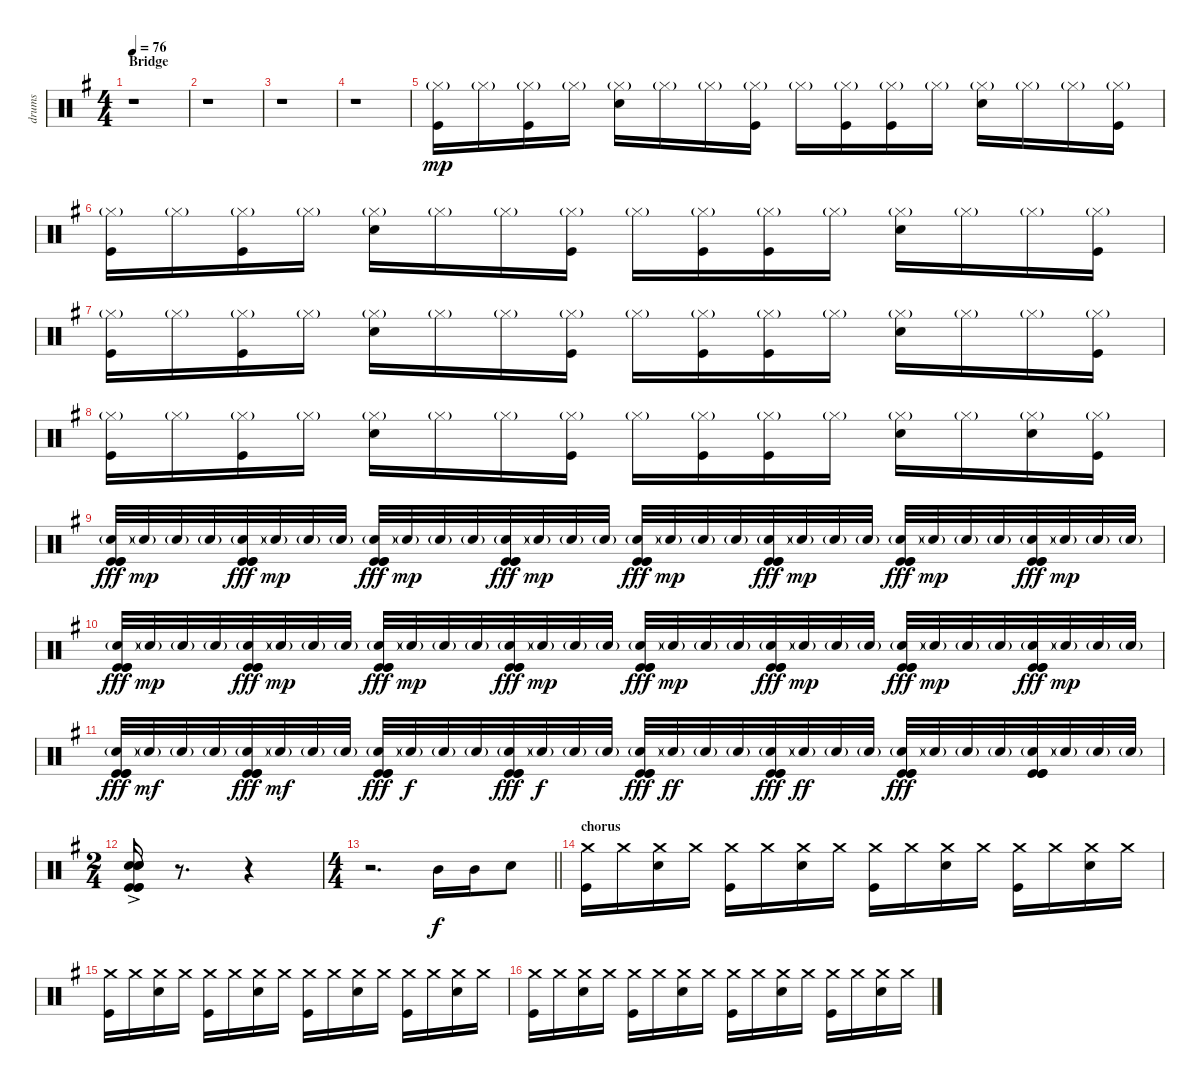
\track ("drums" "drums") {instrument percussion}
\staff {score}
\articulation defaults
\ts (4 4)
\section ("" "Bridge")
\tempo 76
\clef neutral
\ks eminor
r.1{dy f} |
r.1 |
r.1 |
r.1 |
("Hi-Hat (closed)"{g} "Kick (hit)").16{dy mp} "Hi-Hat (closed)"{g}.16 ("Hi-Hat (closed)"{g} "Kick (hit)").16 "Hi-Hat (closed)"{g}.16 ("Hi-Hat (closed)"{g} "Snare (hit) 2").16 "Hi-Hat (closed)"{g}.16 "Hi-Hat (closed)"{g}.16 ("Hi-Hat (closed)"{g} "Kick (hit)").16 "Hi-Hat (closed)"{g}.16 ("Hi-Hat (closed)"{g} "Kick (hit)").16 ("Hi-Hat (closed)"{g} "Kick (hit)").16 "Hi-Hat (closed)"{g}.16 ("Hi-Hat (closed)"{g} "Snare (hit) 2").16 "Hi-Hat (closed)"{g}.16 "Hi-Hat (closed)"{g}.16 ("Hi-Hat (closed)"{g} "Kick (hit)").16 |
("Hi-Hat (closed)"{g} "Kick (hit)").16 "Hi-Hat (closed)"{g}.16 ("Hi-Hat (closed)"{g} "Kick (hit)").16 "Hi-Hat (closed)"{g}.16 ("Hi-Hat (closed)"{g} "Snare (hit) 2").16 "Hi-Hat (closed)"{g}.16 "Hi-Hat (closed)"{g}.16 ("Hi-Hat (closed)"{g} "Kick (hit)").16 "Hi-Hat (closed)"{g}.16 ("Hi-Hat (closed)"{g} "Kick (hit)").16 ("Hi-Hat (closed)"{g} "Kick (hit)").16 "Hi-Hat (closed)"{g}.16 ("Hi-Hat (closed)"{g} "Snare (hit) 2").16 "Hi-Hat (closed)"{g}.16 "Hi-Hat (closed)"{g}.16 ("Hi-Hat (closed)"{g} "Kick (hit)").16 |
("Hi-Hat (closed)"{g} "Kick (hit)").16 "Hi-Hat (closed)"{g}.16 ("Hi-Hat (closed)"{g} "Kick (hit)").16 "Hi-Hat (closed)"{g}.16 ("Hi-Hat (closed)"{g} "Snare (hit) 2").16 "Hi-Hat (closed)"{g}.16 "Hi-Hat (closed)"{g}.16 ("Hi-Hat (closed)"{g} "Kick (hit)").16 "Hi-Hat (closed)"{g}.16 ("Hi-Hat (closed)"{g} "Kick (hit)").16 ("Hi-Hat (closed)"{g} "Kick (hit)").16 "Hi-Hat (closed)"{g}.16 ("Hi-Hat (closed)"{g} "Snare (hit) 2").16 "Hi-Hat (closed)"{g}.16 "Hi-Hat (closed)"{g}.16 ("Hi-Hat (closed)"{g} "Kick (hit)").16 |
("Hi-Hat (closed)"{g} "Kick (hit)").16 "Hi-Hat (closed)"{g}.16 ("Hi-Hat (closed)"{g} "Kick (hit)").16 "Hi-Hat (closed)"{g}.16 ("Hi-Hat (closed)"{g} "Snare (hit) 2").16 "Hi-Hat (closed)"{g}.16 "Hi-Hat (closed)"{g}.16 ("Hi-Hat (closed)"{g} "Kick (hit)").16 "Hi-Hat (closed)"{g}.16 ("Hi-Hat (closed)"{g} "Kick (hit)").16 ("Hi-Hat (closed)"{g} "Kick (hit)").16 "Hi-Hat (closed)"{g}.16 ("Hi-Hat (closed)"{g} "Snare (hit) 2").16 "Hi-Hat (closed)"{g}.16 ("Hi-Hat (closed)"{g} "Snare (hit) 2").16 ("Hi-Hat (closed)"{g} "Kick (hit)").16 |
("Snare (hit) 2"{g} "Kick (hit)" "Kick (hit)" "Kick (hit)").32{dy fff} "Snare (hit) 2"{g}.32{dy mp} "Snare (hit) 2"{g}.32 "Snare (hit) 2"{g}.32 ("Snare (hit) 2"{g} "Kick (hit)" "Kick (hit)" "Kick (hit)").32{dy fff} "Snare (hit) 2"{g}.32{dy mp} "Snare (hit) 2"{g}.32 "Snare (hit) 2"{g}.32 ("Snare (hit) 2"{g} "Kick (hit)" "Kick (hit)" "Kick (hit)").32{dy fff} "Snare (hit) 2"{g}.32{dy mp} "Snare (hit) 2"{g}.32 "Snare (hit) 2"{g}.32 ("Snare (hit) 2"{g} "Kick (hit)" "Kick (hit)" "Kick (hit)").32{dy fff} "Snare (hit) 2"{g}.32{dy mp} "Snare (hit) 2"{g}.32 "Snare (hit) 2"{g}.32 ("Snare (hit) 2"{g} "Kick (hit)" "Kick (hit)" "Kick (hit)").32{dy fff} "Snare (hit) 2"{g}.32{dy mp} "Snare (hit) 2"{g}.32 "Snare (hit) 2"{g}.32 ("Snare (hit) 2"{g} "Kick (hit)" "Kick (hit)" "Kick (hit)").32{dy fff} "Snare (hit) 2"{g}.32{dy mp} "Snare (hit) 2"{g}.32 "Snare (hit) 2"{g}.32 ("Snare (hit) 2"{g} "Kick (hit)" "Kick (hit)" "Kick (hit)").32{dy fff} "Snare (hit) 2"{g}.32{dy mp} "Snare (hit) 2"{g}.32 "Snare (hit) 2"{g}.32 ("Snare (hit) 2"{g} "Kick (hit)" "Kick (hit)" "Kick (hit)").32{dy fff} "Snare (hit) 2"{g}.32{dy mp} "Snare (hit) 2"{g}.32 "Snare (hit) 2"{g}.32 |
("Snare (hit) 2"{g} "Kick (hit)" "Kick (hit)" "Kick (hit)").32{dy fff} "Snare (hit) 2"{g}.32{dy mp} "Snare (hit) 2"{g}.32 "Snare (hit) 2"{g}.32 ("Snare (hit) 2"{g} "Kick (hit)" "Kick (hit)" "Kick (hit)").32{dy fff} "Snare (hit) 2"{g}.32{dy mp} "Snare (hit) 2"{g}.32 "Snare (hit) 2"{g}.32 ("Snare (hit) 2"{g} "Kick (hit)" "Kick (hit)" "Kick (hit)").32{dy fff} "Snare (hit) 2"{g}.32{dy mp} "Snare (hit) 2"{g}.32 "Snare (hit) 2"{g}.32 ("Snare (hit) 2"{g} "Kick (hit)" "Kick (hit)" "Kick (hit)").32{dy fff} "Snare (hit) 2"{g}.32{dy mp} "Snare (hit) 2"{g}.32 "Snare (hit) 2"{g}.32 ("Snare (hit) 2"{g} "Kick (hit)" "Kick (hit)" "Kick (hit)").32{dy fff} "Snare (hit) 2"{g}.32{dy mp} "Snare (hit) 2"{g}.32 "Snare (hit) 2"{g}.32 ("Snare (hit) 2"{g} "Kick (hit)" "Kick (hit)" "Kick (hit)").32{dy fff} "Snare (hit) 2"{g}.32{dy mp} "Snare (hit) 2"{g}.32 "Snare (hit) 2"{g}.32 ("Snare (hit) 2"{g} "Kick (hit)" "Kick (hit)" "Kick (hit)").32{dy fff} "Snare (hit) 2"{g}.32{dy mp} "Snare (hit) 2"{g}.32 "Snare (hit) 2"{g}.32 ("Snare (hit) 2"{g} "Kick (hit)" "Kick (hit)" "Kick (hit)").32{dy fff} "Snare (hit) 2"{g}.32{dy mp} "Snare (hit) 2"{g}.32 "Snare (hit) 2"{g}.32 |
("Snare (hit) 2"{g} "Kick (hit)" "Kick (hit)" "Kick (hit)").32{dy fff} "Snare (hit) 2"{g}.32{dy mf} "Snare (hit) 2"{g}.32 "Snare (hit) 2"{g}.32 ("Snare (hit) 2"{g} "Kick (hit)" "Kick (hit)" "Kick (hit)").32{dy fff} "Snare (hit) 2"{g}.32{dy mf} "Snare (hit) 2"{g}.32 "Snare (hit) 2"{g}.32 ("Snare (hit) 2"{g} "Kick (hit)" "Kick (hit)" "Kick (hit)").32{dy fff} "Snare (hit) 2"{g}.32{dy f} "Snare (hit) 2"{g}.32 "Snare (hit) 2"{g}.32 ("Snare (hit) 2"{g} "Kick (hit)" "Kick (hit)" "Kick (hit)").32{dy fff} "Snare (hit) 2"{g}.32{dy f} "Snare (hit) 2"{g}.32 "Snare (hit) 2"{g}.32 ("Snare (hit) 2"{g} "Kick (hit)" "Kick (hit)" "Kick (hit)").32{dy fff} "Snare (hit) 2"{g}.32{dy ff} "Snare (hit) 2"{g}.32 "Snare (hit) 2"{g}.32 ("Snare (hit) 2"{g} "Kick (hit)" "Kick (hit)" "Kick (hit)").32{dy fff} "Snare (hit) 2"{g}.32{dy ff} "Snare (hit) 2"{g}.32 "Snare (hit) 2"{g}.32 ("Snare (hit) 2"{g} "Kick (hit)" "Kick (hit)" "Kick (hit)").32{dy fff} "Snare (hit) 2"{g}.32 "Snare (hit) 2"{g}.32 "Snare (hit) 2"{g}.32 ("Snare (hit) 2"{g} "Kick (hit)" "Kick (hit)" "Kick (hit)").32 "Snare (hit) 2"{g}.32 "Snare (hit) 2"{g}.32 "Snare (hit) 2"{g}.32 |
\ts (2 4)
("Snare (hit) 2"{ac} "Snare (hit) 2" "Snare (hit) 2" "Kick (hit)" "Kick (hit)" "Kick (hit)").16 r.8{d} r.4 |
\ts (4 4)
\barLineRight lightlight
r.2{d} "Mid Tom (hit)".16{dy f} "Mid Tom (hit)".16 "Snare (hit) 2".8 |
\section ("" "chorus")
("Crash medium (hit)" "Kick (hit)").16 "Crash medium (hit)".16 ("Crash medium (hit)" "Snare (hit) 2").16 "Crash medium (hit)".16 ("Crash medium (hit)" "Kick (hit)").16 "Crash medium (hit)".16 ("Crash medium (hit)" "Snare (hit) 2").16 "Crash medium (hit)".16 ("Crash medium (hit)" "Kick (hit)").16 "Crash medium (hit)".16 ("Crash medium (hit)" "Snare (hit) 2").16 "Crash medium (hit)".16 ("Crash medium (hit)" "Kick (hit)").16 "Crash medium (hit)".16 ("Crash medium (hit)" "Snare (hit) 2").16 "Crash medium (hit)".16 |
("Crash medium (hit)" "Kick (hit)").16 "Crash medium (hit)".16 ("Crash medium (hit)" "Snare (hit) 2").16 "Crash medium (hit)".16 ("Crash medium (hit)" "Kick (hit)").16 "Crash medium (hit)".16 ("Crash medium (hit)" "Snare (hit) 2").16 "Crash medium (hit)".16 ("Crash medium (hit)" "Kick (hit)").16 "Crash medium (hit)".16 ("Crash medium (hit)" "Snare (hit) 2").16 "Crash medium (hit)".16 ("Crash medium (hit)" "Kick (hit)").16 "Crash medium (hit)".16 ("Crash medium (hit)" "Snare (hit) 2").16 "Crash medium (hit)".16 |
("Crash medium (hit)" "Kick (hit)").16 "Crash medium (hit)".16 ("Crash medium (hit)" "Snare (hit) 2").16 "Crash medium (hit)".16 ("Crash medium (hit)" "Kick (hit)").16 "Crash medium (hit)".16 ("Crash medium (hit)" "Snare (hit) 2").16 "Crash medium (hit)".16 ("Crash medium (hit)" "Kick (hit)").16 "Crash medium (hit)".16 ("Crash medium (hit)" "Snare (hit) 2").16 "Crash medium (hit)".16 ("Crash medium (hit)" "Kick (hit)").16 "Crash medium (hit)".16 ("Crash medium (hit)" "Snare (hit) 2").16 "Crash medium (hit)".16
